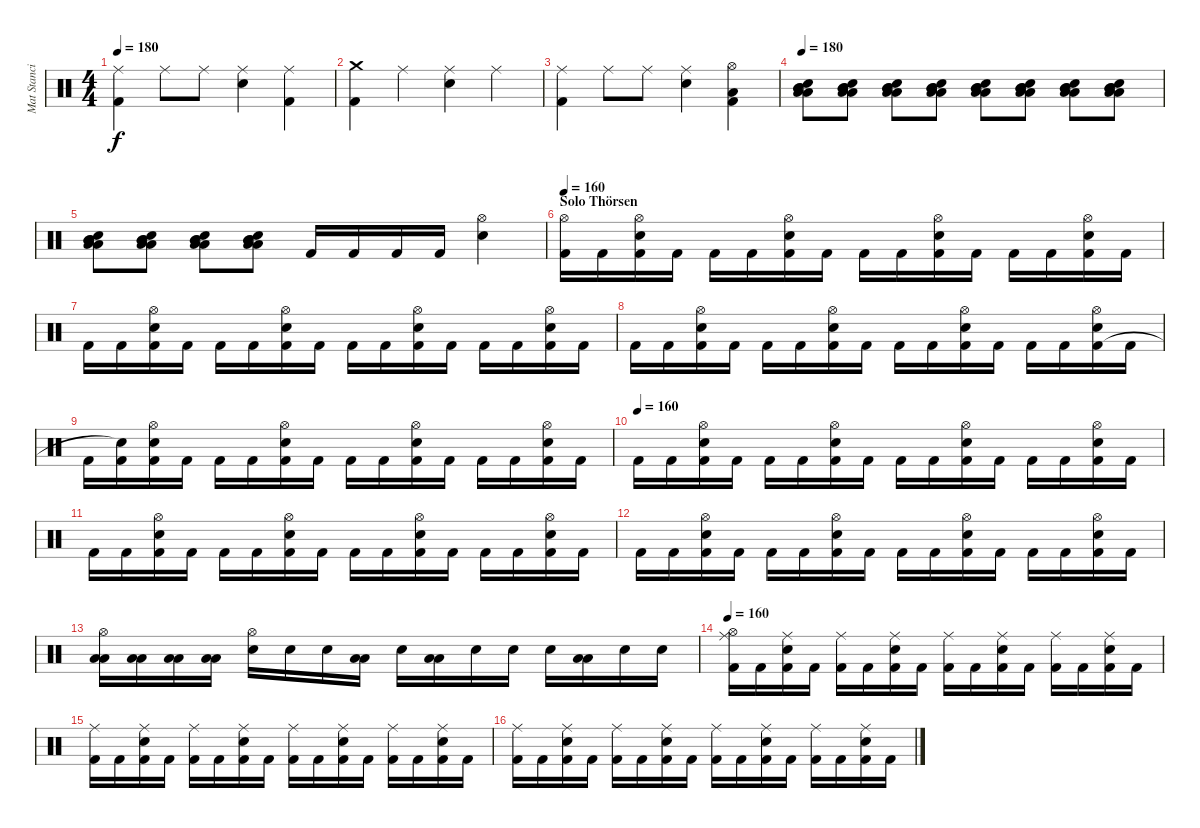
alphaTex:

\track ("Mat Stancioiu" "Mat Stanci") {instrument percussion}
\staff {score}
\articulation defaults
\ts (4 4)
\tempo 180
\clef neutral
\ks c
("Kick (hit) 2" "Ride (middle)").4{dy f} "Ride (middle)".8 "Ride (middle)".8 ("Electric Snare (hit)" "Ride (middle)").4 ("Kick (hit) 2" "Ride (middle)").4 |
("Kick (hit) 2" "Crash medium (hit)").4 "Ride (middle)".4 ("Electric Snare (hit)" "Ride (middle)").4 "Ride (middle)".4 |
("Kick (hit) 2" "Ride (middle)").4 "Ride (middle)".8 "Ride (middle)".8 ("Electric Snare (hit)" "Ride (middle)").4 ("Kick (hit) 2" "Low Tom (hit)" "Hi-Hat (open)").4 |
\tempo 180
("Low Floor Tom (hit)" "Low Floor Tom (hit)" "Mid Tom (hit)" "Mid Tom (hit)" "Electric Snare (hit)").8{volume 3} ("Low Floor Tom (hit)" "Low Floor Tom (hit)" "Mid Tom (hit)" "Mid Tom (hit)" "Electric Snare (hit)").8{volume 15} ("Low Floor Tom (hit)" "Low Floor Tom (hit)" "Mid Tom (hit)" "Mid Tom (hit)" "Electric Snare (hit)").8 ("Low Floor Tom (hit)" "Low Floor Tom (hit)" "Mid Tom (hit)" "Mid Tom (hit)" "Electric Snare (hit)").8 ("Low Floor Tom (hit)" "Low Floor Tom (hit)" "Mid Tom (hit)" "Mid Tom (hit)" "Electric Snare (hit)").8 ("Low Floor Tom (hit)" "Low Floor Tom (hit)" "Mid Tom (hit)" "Mid Tom (hit)" "Electric Snare (hit)").8 ("Low Floor Tom (hit)" "Low Floor Tom (hit)" "Mid Tom (hit)" "Mid Tom (hit)" "Electric Snare (hit)").8 ("Low Floor Tom (hit)" "Low Floor Tom (hit)" "Mid Tom (hit)" "Mid Tom (hit)" "Electric Snare (hit)").8 |
("Low Floor Tom (hit)" "Low Floor Tom (hit)" "Mid Tom (hit)" "Mid Tom (hit)" "Electric Snare (hit)").8 ("Low Floor Tom (hit)" "Low Floor Tom (hit)" "Mid Tom (hit)" "Mid Tom (hit)" "Electric Snare (hit)").8 ("Low Floor Tom (hit)" "Low Floor Tom (hit)" "Mid Tom (hit)" "Mid Tom (hit)" "Electric Snare (hit)").8 ("Low Floor Tom (hit)" "Low Floor Tom (hit)" "Mid Tom (hit)" "Mid Tom (hit)" "Electric Snare (hit)").8 "Kick (hit) 2".16 "Kick (hit) 2".16 "Kick (hit) 2".16 "Kick (hit) 2".16 ("Electric Snare (hit)" "Hi-Hat (open)").4 |
\section ("" "Solo Thörsen")
\tempo 160
("Kick (hit) 2" "Hi-Hat (open)").16 "Kick (hit) 2".16 ("Electric Snare (hit)" "Kick (hit) 2" "Hi-Hat (open)").16 "Kick (hit) 2".16 "Kick (hit) 2".16 "Kick (hit) 2".16 ("Electric Snare (hit)" "Kick (hit) 2" "Hi-Hat (open)").16 "Kick (hit) 2".16 "Kick (hit) 2".16 "Kick (hit) 2".16 ("Electric Snare (hit)" "Kick (hit) 2" "Hi-Hat (open)").16 "Kick (hit) 2".16 "Kick (hit) 2".16 "Kick (hit) 2".16 ("Electric Snare (hit)" "Kick (hit) 2" "Hi-Hat (open)").16 "Kick (hit) 2".16 |
"Kick (hit) 2".16 "Kick (hit) 2".16 ("Electric Snare (hit)" "Kick (hit) 2" "Hi-Hat (open)").16 "Kick (hit) 2".16 "Kick (hit) 2".16 "Kick (hit) 2".16 ("Electric Snare (hit)" "Kick (hit) 2" "Hi-Hat (open)").16 "Kick (hit) 2".16 "Kick (hit) 2".16 "Kick (hit) 2".16 ("Electric Snare (hit)" "Kick (hit) 2" "Hi-Hat (open)").16 "Kick (hit) 2".16 "Kick (hit) 2".16 "Kick (hit) 2".16 ("Electric Snare (hit)" "Kick (hit) 2" "Hi-Hat (open)").16 "Kick (hit) 2".16 |
"Kick (hit) 2".16 "Kick (hit) 2".16 ("Electric Snare (hit)" "Kick (hit) 2" "Hi-Hat (open)").16 "Kick (hit) 2".16 "Kick (hit) 2".16 "Kick (hit) 2".16 ("Electric Snare (hit)" "Kick (hit) 2" "Hi-Hat (open)").16 "Kick (hit) 2".16 "Kick (hit) 2".16 "Kick (hit) 2".16 ("Electric Snare (hit)" "Kick (hit) 2" "Hi-Hat (open)").16 "Kick (hit) 2".16 "Kick (hit) 2".16 "Kick (hit) 2".16 ("Electric Snare (hit)" "Kick (hit) 2" "Hi-Hat (open)").16 "Kick (hit) 2".16 |
"Kick (hit) 2".16 ("Kick (hit) 2" "Snare (hit)"{t}).16 ("Electric Snare (hit)" "Kick (hit) 2" "Hi-Hat (open)").16 "Kick (hit) 2".16 "Kick (hit) 2".16 "Kick (hit) 2".16 ("Electric Snare (hit)" "Kick (hit) 2" "Hi-Hat (open)").16 "Kick (hit) 2".16 "Kick (hit) 2".16 "Kick (hit) 2".16 ("Electric Snare (hit)" "Kick (hit) 2" "Hi-Hat (open)").16 "Kick (hit) 2".16 "Kick (hit) 2".16 "Kick (hit) 2".16 ("Electric Snare (hit)" "Kick (hit) 2" "Hi-Hat (open)").16 "Kick (hit) 2".16 |
\tempo (160)
"Kick (hit) 2".16 "Kick (hit) 2".16 ("Electric Snare (hit)" "Kick (hit) 2" "Hi-Hat (open)").16 "Kick (hit) 2".16 "Kick (hit) 2".16 "Kick (hit) 2".16 ("Electric Snare (hit)" "Kick (hit) 2" "Hi-Hat (open)").16 "Kick (hit) 2".16 "Kick (hit) 2".16 "Kick (hit) 2".16 ("Electric Snare (hit)" "Kick (hit) 2" "Hi-Hat (open)").16 "Kick (hit) 2".16 "Kick (hit) 2".16 "Kick (hit) 2".16 ("Electric Snare (hit)" "Kick (hit) 2" "Hi-Hat (open)").16 "Kick (hit) 2".16 |
"Kick (hit) 2".16 "Kick (hit) 2".16 ("Electric Snare (hit)" "Kick (hit) 2" "Hi-Hat (open)").16 "Kick (hit) 2".16 "Kick (hit) 2".16 "Kick (hit) 2".16 ("Electric Snare (hit)" "Kick (hit) 2" "Hi-Hat (open)").16 "Kick (hit) 2".16 "Kick (hit) 2".16 "Kick (hit) 2".16 ("Electric Snare (hit)" "Kick (hit) 2" "Hi-Hat (open)").16 "Kick (hit) 2".16 "Kick (hit) 2".16 "Kick (hit) 2".16 ("Electric Snare (hit)" "Kick (hit) 2" "Hi-Hat (open)").16 "Kick (hit) 2".16 |
"Kick (hit) 2".16 "Kick (hit) 2".16 ("Electric Snare (hit)" "Kick (hit) 2" "Hi-Hat (open)").16 "Kick (hit) 2".16 "Kick (hit) 2".16 "Kick (hit) 2".16 ("Electric Snare (hit)" "Kick (hit) 2" "Hi-Hat (open)").16 "Kick (hit) 2".16 "Kick (hit) 2".16 "Kick (hit) 2".16 ("Electric Snare (hit)" "Kick (hit) 2" "Hi-Hat (open)").16 "Kick (hit) 2".16 "Kick (hit) 2".16 "Kick (hit) 2".16 ("Electric Snare (hit)" "Kick (hit) 2" "Hi-Hat (open)").16 "Kick (hit) 2".16 |
("Low Tom (hit)" "Low Tom (hit)" "Hi-Hat (open)").16 ("Low Tom (hit)" "Low Tom (hit)").16 ("Low Tom (hit)" "Low Tom (hit)").16 ("Low Tom (hit)" "Low Tom (hit)").16 ("Electric Snare (hit)" "Hi-Hat (open)").16 "Electric Snare (hit)".16 "Electric Snare (hit)".16 ("Low Tom (hit)" "Low Tom (hit)").16 "Electric Snare (hit)".16 ("Low Tom (hit)" "Low Tom (hit)").16 "Electric Snare (hit)".16 "Electric Snare (hit)".16 "Electric Snare (hit)".16 ("Low Tom (hit)" "Low Tom (hit)").16 "Electric Snare (hit)".16 "Electric Snare (hit)".16 |
\tempo 160
("Hi-Hat (open)" "Kick (hit) 2" "Ride (middle)").16 "Kick (hit) 2".16 ("Electric Snare (hit)" "Kick (hit) 2" "Ride (middle)").16 "Kick (hit) 2".16 ("Kick (hit) 2" "Ride (middle)").16 "Kick (hit) 2".16 ("Electric Snare (hit)" "Kick (hit) 2" "Ride (middle)").16 "Kick (hit) 2".16 ("Kick (hit) 2" "Ride (middle)").16 "Kick (hit) 2".16 ("Electric Snare (hit)" "Kick (hit) 2" "Ride (middle)").16 "Kick (hit) 2".16 ("Kick (hit) 2" "Ride (middle)").16 "Kick (hit) 2".16 ("Electric Snare (hit)" "Kick (hit) 2" "Ride (middle)").16 "Kick (hit) 2".16 |
("Kick (hit) 2" "Ride (middle)").16 "Kick (hit) 2".16 ("Electric Snare (hit)" "Kick (hit) 2" "Ride (middle)").16 "Kick (hit) 2".16 ("Kick (hit) 2" "Ride (middle)").16 "Kick (hit) 2".16 ("Electric Snare (hit)" "Kick (hit) 2" "Ride (middle)").16 "Kick (hit) 2".16 ("Kick (hit) 2" "Ride (middle)").16 "Kick (hit) 2".16 ("Electric Snare (hit)" "Kick (hit) 2" "Ride (middle)").16 "Kick (hit) 2".16 ("Kick (hit) 2" "Ride (middle)").16 "Kick (hit) 2".16 ("Electric Snare (hit)" "Kick (hit) 2" "Ride (middle)").16 "Kick (hit) 2".16 |
("Kick (hit) 2" "Ride (middle)").16 "Kick (hit) 2".16 ("Electric Snare (hit)" "Kick (hit) 2" "Ride (middle)").16 "Kick (hit) 2".16 ("Kick (hit) 2" "Ride (middle)").16 "Kick (hit) 2".16 ("Electric Snare (hit)" "Kick (hit) 2" "Ride (middle)").16 "Kick (hit) 2".16 ("Kick (hit) 2" "Ride (middle)").16 "Kick (hit) 2".16 ("Electric Snare (hit)" "Kick (hit) 2" "Ride (middle)").16 "Kick (hit) 2".16 ("Kick (hit) 2" "Ride (middle)").16 "Kick (hit) 2".16 ("Electric Snare (hit)" "Kick (hit) 2" "Ride (middle)").16 "Kick (hit) 2".16
